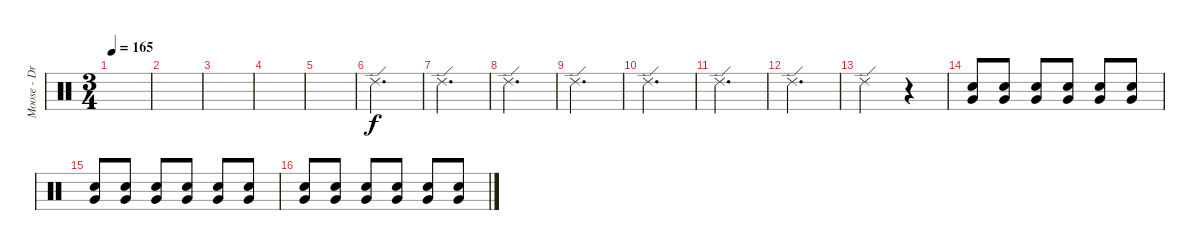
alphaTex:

\track ("Moose - Drums" "Moose - Dr") {instrument percussion}
\staff {score}
\articulation defaults
\ts (3 4)
\tempo 165
\clef neutral
\ks c
|
|
|
|
|
"Ride (edge) 2".2{d} |
"Ride (edge) 2".2{d} |
"Ride (edge) 2".2{d} |
"Ride (edge) 2".2{d} |
"Ride (edge) 2".2{d} |
"Ride (edge) 2".2{d} |
"Ride (edge) 2".2{d} |
"Ride (edge) 2".2 r.4{volume 0} |
("Electric Snare (hit)" "Very Low Tom (hit)").8{volume 4} ("Electric Snare (hit)" "Very Low Tom (hit)").8 ("Electric Snare (hit)" "Very Low Tom (hit)").8 ("Electric Snare (hit)" "Very Low Tom (hit)").8 ("Electric Snare (hit)" "Very Low Tom (hit)").8 ("Electric Snare (hit)" "Very Low Tom (hit)").8 |
("Electric Snare (hit)" "Very Low Tom (hit)").8 ("Electric Snare (hit)" "Very Low Tom (hit)").8 ("Electric Snare (hit)" "Very Low Tom (hit)").8 ("Electric Snare (hit)" "Very Low Tom (hit)").8 ("Electric Snare (hit)" "Very Low Tom (hit)").8 ("Electric Snare (hit)" "Very Low Tom (hit)").8 |
("Electric Snare (hit)" "Very Low Tom (hit)").8 ("Electric Snare (hit)" "Very Low Tom (hit)").8 ("Electric Snare (hit)" "Very Low Tom (hit)").8 ("Electric Snare (hit)" "Very Low Tom (hit)").8 ("Electric Snare (hit)" "Very Low Tom (hit)").8 ("Electric Snare (hit)" "Very Low Tom (hit)").8
